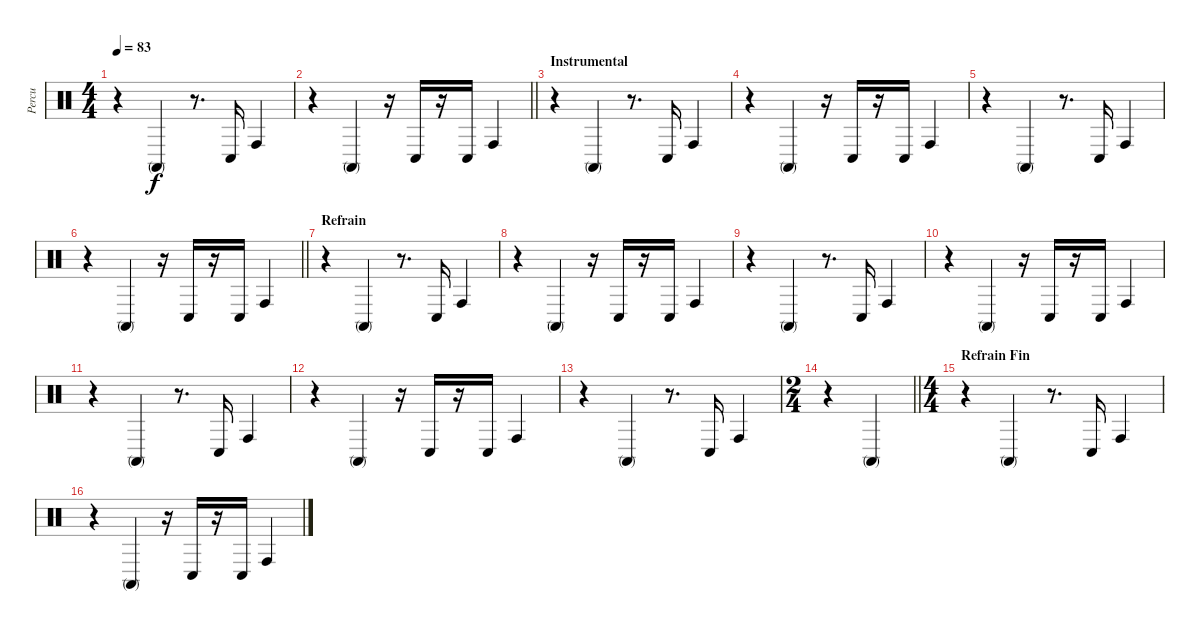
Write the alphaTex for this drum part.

\track ("Percu" "Percu") {instrument percussion}
\staff {score}
\articulation defaults
\ts (4 4)
\tempo 83
\clef neutral
\ks c
r.4{dy f} "Conga high (mute)".4 r.8{d} "Conga low (hit)".16 "Conga high (hit)".4 |
\barLineRight lightlight
r.4 "Conga high (mute)".4 r.16 "Conga low (hit)".16 r.16 "Conga low (hit)".16 "Conga high (hit)".4 |
\section ("" "Instrumental")
r.4 "Conga high (mute)".4 r.8{d} "Conga low (hit)".16 "Conga high (hit)".4 |
r.4 "Conga high (mute)".4 r.16 "Conga low (hit)".16 r.16 "Conga low (hit)".16 "Conga high (hit)".4 |
r.4 "Conga high (mute)".4 r.8{d} "Conga low (hit)".16 "Conga high (hit)".4 |
\barLineRight lightlight
r.4 "Conga high (mute)".4 r.16 "Conga low (hit)".16 r.16 "Conga low (hit)".16 "Conga high (hit)".4 |
\section ("" "Refrain")
r.4 "Conga high (mute)".4 r.8{d} "Conga low (hit)".16 "Conga high (hit)".4 |
r.4 "Conga high (mute)".4 r.16 "Conga low (hit)".16 r.16 "Conga low (hit)".16 "Conga high (hit)".4 |
r.4 "Conga high (mute)".4 r.8{d} "Conga low (hit)".16 "Conga high (hit)".4 |
r.4 "Conga high (mute)".4 r.16 "Conga low (hit)".16 r.16 "Conga low (hit)".16 "Conga high (hit)".4 |
r.4 "Conga high (mute)".4 r.8{d} "Conga low (hit)".16 "Conga high (hit)".4 |
r.4 "Conga high (mute)".4 r.16 "Conga low (hit)".16 r.16 "Conga low (hit)".16 "Conga high (hit)".4 |
r.4 "Conga high (mute)".4 r.8{d} "Conga low (hit)".16 "Conga high (hit)".4 |
\ts (2 4)
\barLineRight lightlight
r.4 "Conga high (mute)".4 |
\ts (4 4)
\section ("" "Refrain Fin")
r.4 "Conga high (mute)".4 r.8{d} "Conga low (hit)".16 "Conga high (hit)".4 |
r.4 "Conga high (mute)".4 r.16 "Conga low (hit)".16 r.16 "Conga low (hit)".16 "Conga high (hit)".4
